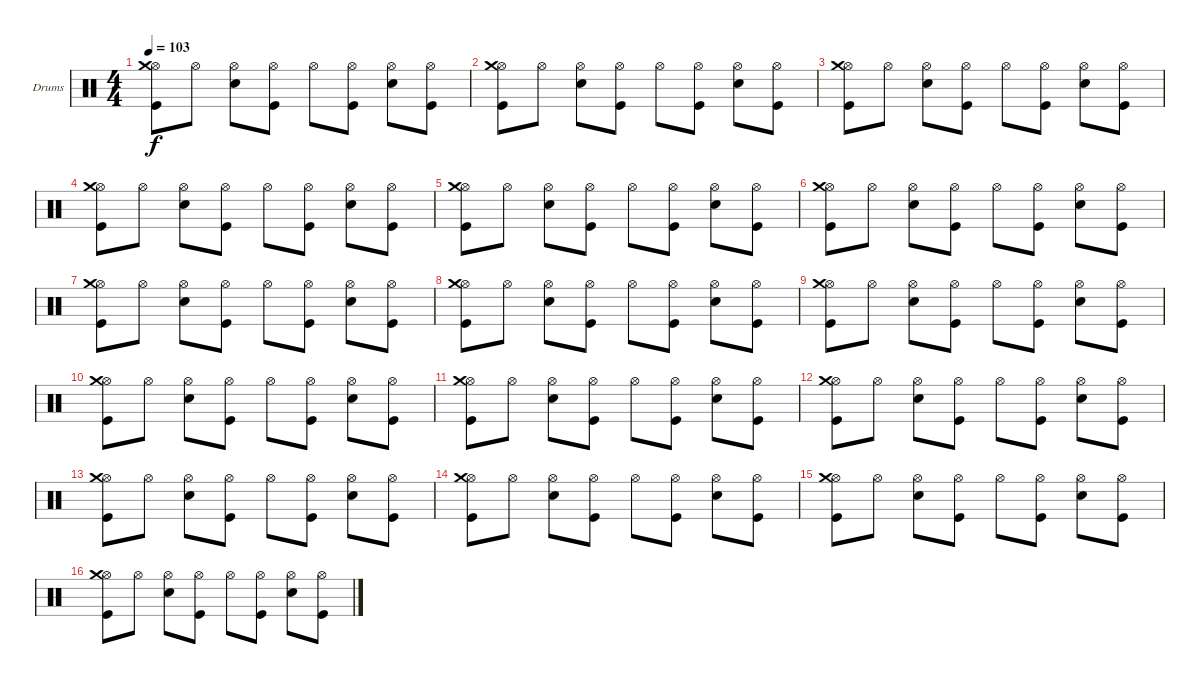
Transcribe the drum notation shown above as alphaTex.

\defaultSystemsLayout 4
\bracketExtendMode nobrackets
\firstSystemTrackNameOrientation horizontal
\otherSystemsTrackNameOrientation horizontal
\track ("Dave Abbruzzese" "Drums") {solo instrument percussion}
\staff {score}
\articulation defaults
\ts (4 4)
\tempo 103
\clef neutral
\ks c
("Kick (hit)" "Hi-Hat (open)" "Crash medium (hit)").8{dy f} "Hi-Hat (open)".8 ("Snare (hit) 2" "Hi-Hat (open)").8 ("Kick (hit)" "Hi-Hat (open)").8 "Hi-Hat (open)".8 ("Kick (hit)" "Hi-Hat (open)").8 ("Snare (hit) 2" "Hi-Hat (open)").8 ("Kick (hit)" "Hi-Hat (open)").8 |
("Kick (hit)" "Hi-Hat (open)" "Crash medium (hit)").8 "Hi-Hat (open)".8 ("Snare (hit) 2" "Hi-Hat (open)").8 ("Kick (hit)" "Hi-Hat (open)").8 "Hi-Hat (open)".8 ("Kick (hit)" "Hi-Hat (open)").8 ("Snare (hit) 2" "Hi-Hat (open)").8 ("Kick (hit)" "Hi-Hat (open)").8 |
("Kick (hit)" "Hi-Hat (open)" "Crash medium (hit)").8 "Hi-Hat (open)".8 ("Snare (hit) 2" "Hi-Hat (open)").8 ("Kick (hit)" "Hi-Hat (open)").8 "Hi-Hat (open)".8 ("Kick (hit)" "Hi-Hat (open)").8 ("Snare (hit) 2" "Hi-Hat (open)").8 ("Kick (hit)" "Hi-Hat (open)").8 |
("Kick (hit)" "Hi-Hat (open)" "Crash medium (hit)").8 "Hi-Hat (open)".8 ("Snare (hit) 2" "Hi-Hat (open)").8 ("Kick (hit)" "Hi-Hat (open)").8 "Hi-Hat (open)".8 ("Kick (hit)" "Hi-Hat (open)").8 ("Snare (hit) 2" "Hi-Hat (open)").8 ("Kick (hit)" "Hi-Hat (open)").8 |
("Kick (hit)" "Hi-Hat (open)" "Crash medium (hit)").8 "Hi-Hat (open)".8 ("Snare (hit) 2" "Hi-Hat (open)").8 ("Kick (hit)" "Hi-Hat (open)").8 "Hi-Hat (open)".8 ("Kick (hit)" "Hi-Hat (open)").8 ("Snare (hit) 2" "Hi-Hat (open)").8 ("Kick (hit)" "Hi-Hat (open)").8 |
("Kick (hit)" "Hi-Hat (open)" "Crash medium (hit)").8 "Hi-Hat (open)".8 ("Snare (hit) 2" "Hi-Hat (open)").8 ("Kick (hit)" "Hi-Hat (open)").8 "Hi-Hat (open)".8 ("Kick (hit)" "Hi-Hat (open)").8 ("Snare (hit) 2" "Hi-Hat (open)").8 ("Kick (hit)" "Hi-Hat (open)").8 |
("Kick (hit)" "Hi-Hat (open)" "Crash medium (hit)").8 "Hi-Hat (open)".8 ("Snare (hit) 2" "Hi-Hat (open)").8 ("Kick (hit)" "Hi-Hat (open)").8 "Hi-Hat (open)".8 ("Kick (hit)" "Hi-Hat (open)").8 ("Snare (hit) 2" "Hi-Hat (open)").8 ("Kick (hit)" "Hi-Hat (open)").8 |
("Kick (hit)" "Hi-Hat (open)" "Crash medium (hit)").8 "Hi-Hat (open)".8 ("Snare (hit) 2" "Hi-Hat (open)").8 ("Kick (hit)" "Hi-Hat (open)").8 "Hi-Hat (open)".8 ("Kick (hit)" "Hi-Hat (open)").8 ("Snare (hit) 2" "Hi-Hat (open)").8 ("Kick (hit)" "Hi-Hat (open)").8 |
("Kick (hit)" "Hi-Hat (open)" "Crash medium (hit)").8 "Hi-Hat (open)".8 ("Snare (hit) 2" "Hi-Hat (open)").8 ("Kick (hit)" "Hi-Hat (open)").8 "Hi-Hat (open)".8 ("Kick (hit)" "Hi-Hat (open)").8 ("Snare (hit) 2" "Hi-Hat (open)").8 ("Kick (hit)" "Hi-Hat (open)").8 |
("Kick (hit)" "Hi-Hat (open)" "Crash medium (hit)").8 "Hi-Hat (open)".8 ("Snare (hit) 2" "Hi-Hat (open)").8 ("Kick (hit)" "Hi-Hat (open)").8 "Hi-Hat (open)".8 ("Kick (hit)" "Hi-Hat (open)").8 ("Snare (hit) 2" "Hi-Hat (open)").8 ("Kick (hit)" "Hi-Hat (open)").8 |
("Kick (hit)" "Hi-Hat (open)" "Crash medium (hit)").8 "Hi-Hat (open)".8 ("Snare (hit) 2" "Hi-Hat (open)").8 ("Kick (hit)" "Hi-Hat (open)").8 "Hi-Hat (open)".8 ("Kick (hit)" "Hi-Hat (open)").8 ("Snare (hit) 2" "Hi-Hat (open)").8 ("Kick (hit)" "Hi-Hat (open)").8 |
("Kick (hit)" "Hi-Hat (open)" "Crash medium (hit)").8 "Hi-Hat (open)".8 ("Snare (hit) 2" "Hi-Hat (open)").8 ("Kick (hit)" "Hi-Hat (open)").8 "Hi-Hat (open)".8 ("Kick (hit)" "Hi-Hat (open)").8 ("Snare (hit) 2" "Hi-Hat (open)").8 ("Kick (hit)" "Hi-Hat (open)").8 |
("Kick (hit)" "Hi-Hat (open)" "Crash medium (hit)").8 "Hi-Hat (open)".8 ("Snare (hit) 2" "Hi-Hat (open)").8 ("Kick (hit)" "Hi-Hat (open)").8 "Hi-Hat (open)".8 ("Kick (hit)" "Hi-Hat (open)").8 ("Snare (hit) 2" "Hi-Hat (open)").8 ("Kick (hit)" "Hi-Hat (open)").8 |
("Kick (hit)" "Hi-Hat (open)" "Crash medium (hit)").8 "Hi-Hat (open)".8 ("Snare (hit) 2" "Hi-Hat (open)").8 ("Kick (hit)" "Hi-Hat (open)").8 "Hi-Hat (open)".8 ("Kick (hit)" "Hi-Hat (open)").8 ("Snare (hit) 2" "Hi-Hat (open)").8 ("Kick (hit)" "Hi-Hat (open)").8 |
("Kick (hit)" "Hi-Hat (open)" "Crash medium (hit)").8 "Hi-Hat (open)".8 ("Snare (hit) 2" "Hi-Hat (open)").8 ("Kick (hit)" "Hi-Hat (open)").8 "Hi-Hat (open)".8 ("Kick (hit)" "Hi-Hat (open)").8 ("Snare (hit) 2" "Hi-Hat (open)").8 ("Kick (hit)" "Hi-Hat (open)").8 |
("Kick (hit)" "Hi-Hat (open)" "Crash medium (hit)").8 "Hi-Hat (open)".8 ("Snare (hit) 2" "Hi-Hat (open)").8 ("Kick (hit)" "Hi-Hat (open)").8 "Hi-Hat (open)".8 ("Kick (hit)" "Hi-Hat (open)").8 ("Snare (hit) 2" "Hi-Hat (open)").8 ("Kick (hit)" "Hi-Hat (open)").8
